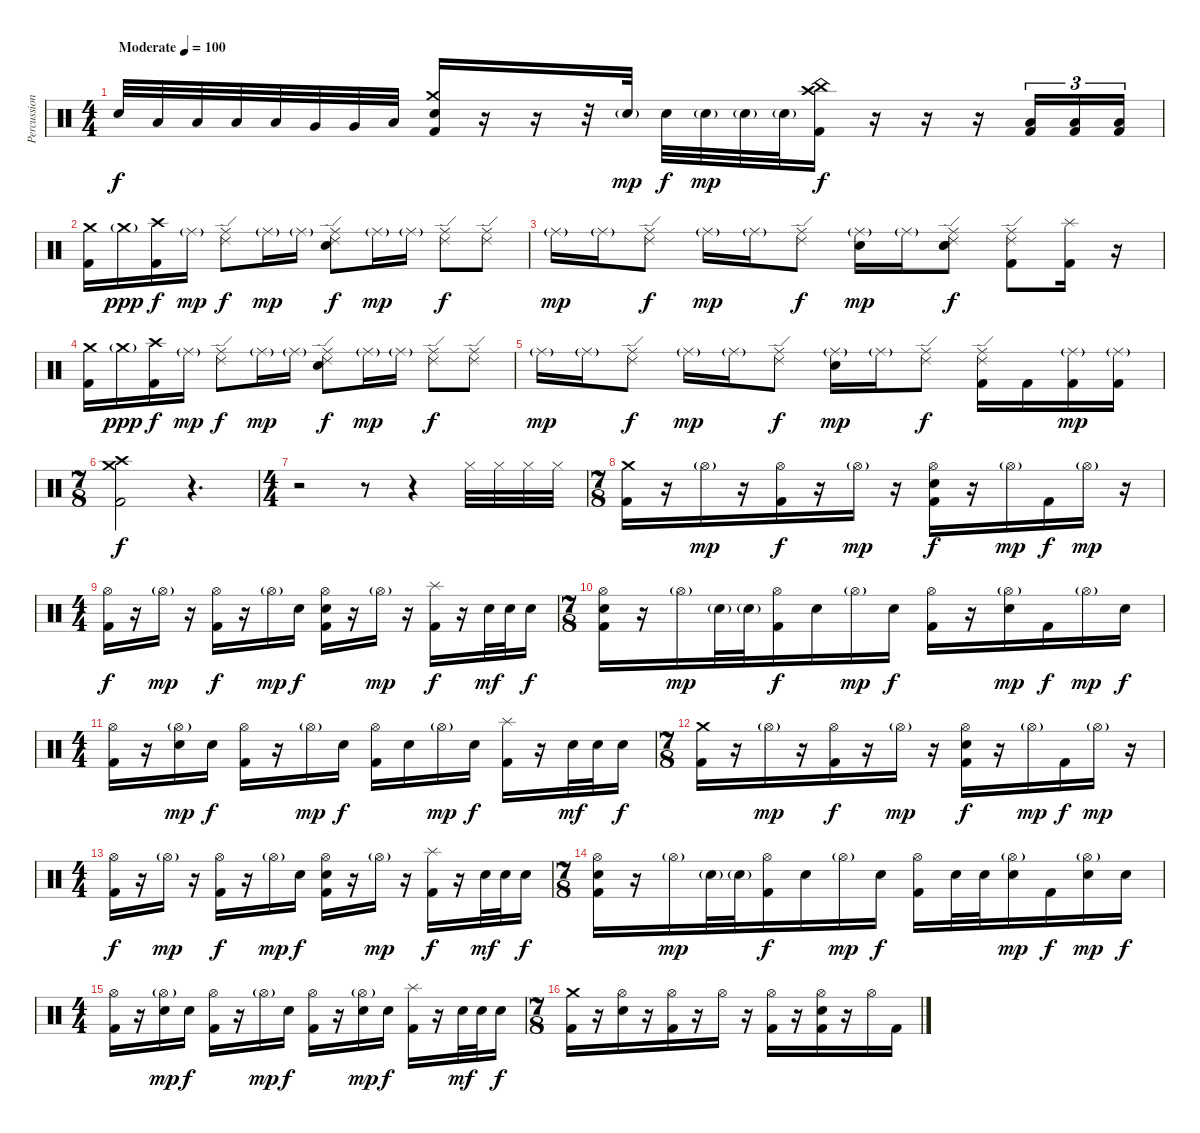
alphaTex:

\track ("Percussion" "Percussion") {instrument percussion}
\staff {score}
\articulation defaults
\ts (4 4)
\tempo (100 "Moderate")
\clef neutral
\ks c "Electric Snare (hit)".32{dy f} "Low Tom (hit)".32 "Low Tom (hit)".32 "Low Tom (hit)".32 "Low Tom (hit)".32 "Very Low Tom (hit)".32 "Very Low Tom (hit)".32 "Low Floor Tom (hit)".32
("Crash medium (hit)" "Electric Snare (hit)" "Kick (hit) 2").16 r.16 r.16 r.32 "Electric Snare (hit)"{g}.32{dy mp} "Electric Snare (hit)".32{dy f} "Electric Snare (hit)"{g}.32{dy mp} "Electric Snare (hit)"{g}.32 "Electric Snare (hit)"{g}.32 ("Crash high (hit)" "China (hit)" "Kick (hit) 2").16{dy f} r.16 r.16 r.16 ("Low Floor Tom (hit)" "Kick (hit) 2").16{tu (3 2)} ("Low Floor Tom (hit)" "Kick (hit) 2").16{tu (3 2)} ("Low Floor Tom (hit)" "Kick (hit) 2").16{tu (3 2)} |
("Crash medium (hit)" "Kick (hit) 2").16 "Crash medium (hit)"{g}.16{dy ppp} ("Crash high (hit)" "Kick (hit) 2").16{dy f} "Ride (middle)"{g}.16{dy mp} ("Ride (middle)" "Ride (edge) 2").8{dy f} "Ride (middle)"{g}.16{dy mp} "Ride (middle)"{g}.16 ("Ride (middle)" "Ride (edge) 2" "Electric Snare (hit)").8{dy f} "Ride (middle)"{g}.16{dy mp} "Ride (middle)"{g}.16 ("Ride (middle)" "Ride (edge) 2").8{dy f} ("Ride (middle)" "Ride (edge) 2").8 |
"Ride (middle)"{g}.16{dy mp} "Ride (middle)"{g}.16 ("Ride (middle)" "Ride (edge) 2").8{dy f} "Ride (middle)"{g}.16{dy mp} "Ride (middle)"{g}.16 ("Ride (middle)" "Ride (edge) 2").8{dy f} ("Ride (middle)"{g} "Electric Snare (hit)").16{dy mp} "Ride (middle)"{g}.16 ("Ride (middle)" "Ride (edge) 2" "Electric Snare (hit)" "Electric Snare (hit)").8{bd 60 dy f} ("Ride (middle)" "Ride (edge) 2" "Kick (hit) 2").8 ("Splash (hit)" "Kick (hit) 2").16 r.16 |
("Crash medium (hit)" "Kick (hit) 2").16 "Crash medium (hit)"{g}.16{dy ppp} ("Crash high (hit)" "Kick (hit) 2").16{dy f} "Ride (middle)"{g}.16{dy mp} ("Ride (middle)" "Ride (edge) 2").8{dy f} "Ride (middle)"{g}.16{dy mp} "Ride (middle)"{g}.16 ("Ride (middle)" "Ride (edge) 2" "Electric Snare (hit)").8{dy f} "Ride (middle)"{g}.16{dy mp} "Ride (middle)"{g}.16 ("Ride (middle)" "Ride (edge) 2").8{dy f} ("Ride (middle)" "Ride (edge) 2").8 |
"Ride (middle)"{g}.16{dy mp} "Ride (middle)"{g}.16 ("Ride (middle)" "Ride (edge) 2").8{dy f} "Ride (middle)"{g}.16{dy mp} "Ride (middle)"{g}.16 ("Ride (middle)" "Ride (edge) 2").8{dy f} ("Ride (middle)"{g} "Electric Snare (hit)").16{dy mp} "Ride (middle)"{g}.16 ("Ride (middle)" "Ride (edge) 2").8{dy f} ("Ride (middle)" "Ride (edge) 2" "Kick (hit) 2").16 "Kick (hit) 2".16 ("Ride (middle)"{g} "Kick (hit) 2").16{dy mp} ("Ride (middle)"{g} "Kick (hit) 2").16 |
\ts (7 8)
("Crash medium (hit)" "Crash high (hit)" "Kick (hit) 2").2{dy f} r.4{d} |
\ts (4 4)
r.2 r.8 r.4 "Hi-Hat (closed)".32 "Hi-Hat (closed)".32 "Hi-Hat (closed)".32 "Hi-Hat (closed)".32 |
\ts (7 8)
("Crash medium (hit)" "Kick (hit) 2").16 r.16 "Hi-Hat (open)"{g}.16{dy mp} r.16 ("Hi-Hat (open)" "Kick (hit) 2").16{dy f} r.16 "Hi-Hat (open)"{g}.16{dy mp} r.16 ("Hi-Hat (open)" "Electric Snare (hit)" "Kick (hit) 2").16{dy f} r.16 "Hi-Hat (open)"{g}.16{dy mp} "Kick (hit) 2".16{dy f} "Hi-Hat (open)"{g}.16{dy mp} r.16 |
\ts (4 4)
("Hi-Hat (open)" "Kick (hit) 2").16{dy f} r.16 "Hi-Hat (open)"{g}.16{dy mp} r.16 ("Hi-Hat (open)" "Kick (hit) 2").16{dy f} r.16 "Hi-Hat (open)"{g}.16{dy mp} "Electric Snare (hit)".16{dy f} ("Hi-Hat (open)" "Electric Snare (hit)" "Kick (hit) 2").16 r.16 "Hi-Hat (open)"{g}.16{dy mp} r.16 ("Splash (hit)" "Kick (hit) 2").16{dy f} r.16 "Electric Snare (hit)".32{dy mf} "Electric Snare (hit)".32 "Electric Snare (hit)".16{dy f} |
\ts (7 8)
("Hi-Hat (open)" "Electric Snare (hit)" "Kick (hit) 2").16 r.16 "Hi-Hat (open)"{g}.16{dy mp} "Electric Snare (hit)"{g}.32 "Electric Snare (hit)"{g}.32 ("Hi-Hat (open)" "Kick (hit) 2").16{dy f} "Electric Snare (hit)".16 "Hi-Hat (open)"{g}.16{dy mp} "Electric Snare (hit)".16{dy f} ("Hi-Hat (open)" "Kick (hit) 2").16 r.16 ("Hi-Hat (open)"{g} "Electric Snare (hit)").16{dy mp} "Kick (hit) 2".16{dy f} "Hi-Hat (open)"{g}.16{dy mp} "Electric Snare (hit)".16{dy f} |
\ts (4 4)
("Hi-Hat (open)" "Kick (hit) 2").16 r.16 ("Hi-Hat (open)"{g} "Electric Snare (hit)").16{dy mp} "Electric Snare (hit)".16{dy f} ("Hi-Hat (open)" "Kick (hit) 2").16 r.16 "Hi-Hat (open)"{g}.16{dy mp} "Electric Snare (hit)".16{dy f} ("Hi-Hat (open)" "Kick (hit) 2").16 "Electric Snare (hit)".16 "Hi-Hat (open)"{g}.16{dy mp} "Electric Snare (hit)".16{dy f} ("Splash (hit)" "Kick (hit) 2").16 r.16 "Electric Snare (hit)".32{dy mf} "Electric Snare (hit)".32 "Electric Snare (hit)".16{dy f} |
\ts (7 8)
("Crash medium (hit)" "Kick (hit) 2").16 r.16 "Hi-Hat (open)"{g}.16{dy mp} r.16 ("Hi-Hat (open)" "Kick (hit) 2").16{dy f} r.16 "Hi-Hat (open)"{g}.16{dy mp} r.16 ("Hi-Hat (open)" "Electric Snare (hit)" "Kick (hit) 2").16{dy f} r.16 "Hi-Hat (open)"{g}.16{dy mp} "Kick (hit) 2".16{dy f} "Hi-Hat (open)"{g}.16{dy mp} r.16 |
\ts (4 4)
("Hi-Hat (open)" "Kick (hit) 2").16{dy f} r.16 "Hi-Hat (open)"{g}.16{dy mp} r.16 ("Hi-Hat (open)" "Kick (hit) 2").16{dy f} r.16 "Hi-Hat (open)"{g}.16{dy mp} "Electric Snare (hit)".16{dy f} ("Hi-Hat (open)" "Electric Snare (hit)" "Kick (hit) 2").16 r.16 "Hi-Hat (open)"{g}.16{dy mp} r.16 ("Splash (hit)" "Kick (hit) 2").16{dy f} r.16 "Electric Snare (hit)".32{dy mf} "Electric Snare (hit)".32 "Electric Snare (hit)".16{dy f} |
\ts (7 8)
("Hi-Hat (open)" "Electric Snare (hit)" "Kick (hit) 2").16 r.16 "Hi-Hat (open)"{g}.16{dy mp} "Electric Snare (hit)"{g}.32 "Electric Snare (hit)"{g}.32 ("Hi-Hat (open)" "Kick (hit) 2").16{dy f} "Electric Snare (hit)".16 "Hi-Hat (open)"{g}.16{dy mp} "Electric Snare (hit)".16{dy f} ("Hi-Hat (open)" "Kick (hit) 2").16 "Electric Snare (hit)".32 "Electric Snare (hit)".32 ("Hi-Hat (open)"{g} "Electric Snare (hit)").16{dy mp} "Kick (hit) 2".16{dy f} ("Hi-Hat (open)"{g} "Electric Snare (hit)").16{dy mp} "Electric Snare (hit)".16{dy f} |
\ts (4 4)
("Hi-Hat (open)" "Kick (hit) 2").16 r.16 ("Hi-Hat (open)"{g} "Electric Snare (hit)").16{dy mp} "Electric Snare (hit)".16{dy f} ("Hi-Hat (open)" "Kick (hit) 2").16 r.16 "Hi-Hat (open)"{g}.16{dy mp} "Electric Snare (hit)".16{dy f} ("Hi-Hat (open)" "Kick (hit) 2").16 r.16 ("Hi-Hat (open)"{g} "Electric Snare (hit)").16{dy mp} "Electric Snare (hit)".16{dy f} ("Splash (hit)" "Kick (hit) 2").16 r.16 "Electric Snare (hit)".32{dy mf} "Electric Snare (hit)".32 "Electric Snare (hit)".16{dy f} |
\ts (7 8)
("Crash medium (hit)" "Kick (hit) 2").16 r.16 ("Hi-Hat (open)" "Electric Snare (hit)").16 r.16 ("Hi-Hat (open)" "Kick (hit) 2").16 r.16 "Hi-Hat (open)".16 r.16 ("Hi-Hat (open)" "Kick (hit) 2").16 r.16 ("Hi-Hat (open)" "Electric Snare (hit)" "Kick (hit) 2").16 r.16 "Hi-Hat (open)".16 "Kick (hit) 2".16
